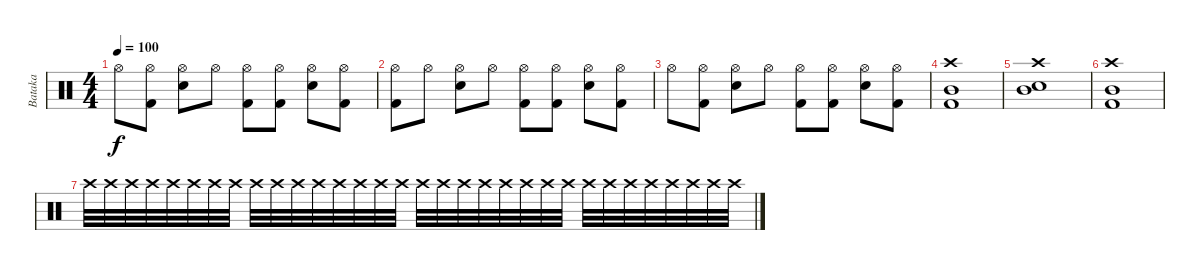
\track ("Bataka" "Bataka") {instrument percussion}
\staff {score}
\articulation defaults
\ts (4 4)
\tempo 100
\clef neutral
\ks c "Hi-Hat (open)".8{dy f}
("Hi-Hat (open)" "Kick (hit) 2").8 ("Hi-Hat (open)" "Snare (hit) 2").8 "Hi-Hat (open)".8 ("Hi-Hat (open)" "Kick (hit) 2").8 ("Hi-Hat (open)" "Kick (hit) 2").8 ("Hi-Hat (open)" "Snare (hit) 2").8 ("Hi-Hat (open)" "Kick (hit) 2").8 |
("Hi-Hat (open)" "Kick (hit) 2").8 "Hi-Hat (open)".8 ("Hi-Hat (open)" "Snare (hit) 2").8 "Hi-Hat (open)".8 ("Hi-Hat (open)" "Kick (hit) 2").8 ("Hi-Hat (open)" "Kick (hit) 2").8 ("Hi-Hat (open)" "Snare (hit) 2").8 ("Hi-Hat (open)" "Kick (hit) 2").8 |
"Hi-Hat (open)".8 ("Hi-Hat (open)" "Kick (hit) 2").8 ("Hi-Hat (open)" "Snare (hit) 2").8 "Hi-Hat (open)".8 ("Hi-Hat (open)" "Kick (hit) 2").8 ("Hi-Hat (open)" "Kick (hit) 2").8 ("Hi-Hat (open)" "Snare (hit) 2").8 ("Hi-Hat (open)" "Kick (hit) 2").8 |
("Mid Tom (hit)" "Kick (hit) 2" "Crash high (hit)").1 |
("Mid Tom (hit)" "Snare (hit) 2" "Crash high (hit)").1 |
("Mid Tom (hit)" "Kick (hit) 2" "Crash high (hit)").1 |
"Crash high (hit)".32 "Crash high (hit)".32 "Crash high (hit)".32 "Crash high (hit)".32 "Crash high (hit)".32 "Crash high (hit)".32 "Crash high (hit)".32 "Crash high (hit)".32 "Crash high (hit)".32 "Crash high (hit)".32 "Crash high (hit)".32 "Crash high (hit)".32 "Crash high (hit)".32 "Crash high (hit)".32 "Crash high (hit)".32 "Crash high (hit)".32 "Crash high (hit)".32 "Crash high (hit)".32 "Crash high (hit)".32 "Crash high (hit)".32 "Crash high (hit)".32 "Crash high (hit)".32 "Crash high (hit)".32 "Crash high (hit)".32 "Crash high (hit)".32 "Crash high (hit)".32 "Crash high (hit)".32 "Crash high (hit)".32 "Crash high (hit)".32 "Crash high (hit)".32 "Crash high (hit)".32 "Crash high (hit)".32
